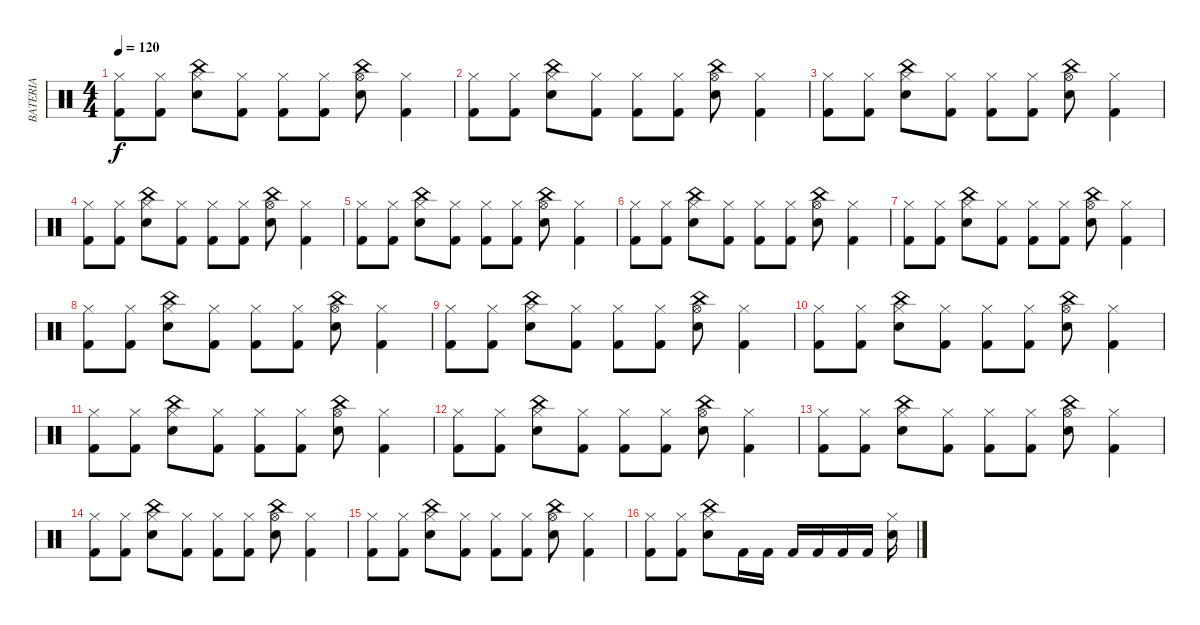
\track ("BATERIA" "BATERIA") {instrument percussion}
\staff {score}
\articulation defaults
\ts (4 4)
\tempo 120
\clef neutral
\ks c
("Hi-Hat (closed)" "Kick (hit) 2").8{dy f} ("Hi-Hat (closed)" "Kick (hit) 2").8 ("Snare (hit) 2" "Hi-Hat (closed)" "China (hit)").8 ("Kick (hit) 2" "Hi-Hat (closed)").8 ("Kick (hit) 2" "Hi-Hat (closed)").8 ("Kick (hit) 2" "Hi-Hat (closed)").8 ("Snare (hit) 2" "Hi-Hat (open)" "China (hit)").8 ("Kick (hit) 2" "Hi-Hat (closed)").4 |
("Hi-Hat (closed)" "Kick (hit) 2").8 ("Hi-Hat (closed)" "Kick (hit) 2").8 ("Snare (hit) 2" "Hi-Hat (closed)" "China (hit)").8 ("Kick (hit) 2" "Hi-Hat (closed)").8 ("Kick (hit) 2" "Hi-Hat (closed)").8 ("Kick (hit) 2" "Hi-Hat (closed)").8 ("Snare (hit) 2" "Hi-Hat (open)" "China (hit)").8 ("Kick (hit) 2" "Hi-Hat (closed)").4 |
("Hi-Hat (closed)" "Kick (hit) 2").8 ("Hi-Hat (closed)" "Kick (hit) 2").8 ("Snare (hit) 2" "Hi-Hat (closed)" "China (hit)").8 ("Kick (hit) 2" "Hi-Hat (closed)").8 ("Kick (hit) 2" "Hi-Hat (closed)").8 ("Kick (hit) 2" "Hi-Hat (closed)").8 ("Snare (hit) 2" "Hi-Hat (open)" "China (hit)").8 ("Kick (hit) 2" "Hi-Hat (closed)").4 |
("Hi-Hat (closed)" "Kick (hit) 2").8 ("Hi-Hat (closed)" "Kick (hit) 2").8 ("Snare (hit) 2" "Hi-Hat (closed)" "China (hit)").8 ("Kick (hit) 2" "Hi-Hat (closed)").8 ("Kick (hit) 2" "Hi-Hat (closed)").8 ("Kick (hit) 2" "Hi-Hat (closed)").8 ("Snare (hit) 2" "Hi-Hat (open)" "China (hit)").8 ("Kick (hit) 2" "Hi-Hat (closed)").4 |
("Hi-Hat (closed)" "Kick (hit) 2").8 ("Hi-Hat (closed)" "Kick (hit) 2").8 ("Snare (hit) 2" "Hi-Hat (closed)" "China (hit)").8 ("Kick (hit) 2" "Hi-Hat (closed)").8 ("Kick (hit) 2" "Hi-Hat (closed)").8 ("Kick (hit) 2" "Hi-Hat (closed)").8 ("Snare (hit) 2" "Hi-Hat (open)" "China (hit)").8 ("Kick (hit) 2" "Hi-Hat (closed)").4 |
("Hi-Hat (closed)" "Kick (hit) 2").8 ("Hi-Hat (closed)" "Kick (hit) 2").8 ("Snare (hit) 2" "Hi-Hat (closed)" "China (hit)").8 ("Kick (hit) 2" "Hi-Hat (closed)").8 ("Kick (hit) 2" "Hi-Hat (closed)").8 ("Kick (hit) 2" "Hi-Hat (closed)").8 ("Snare (hit) 2" "Hi-Hat (open)" "China (hit)").8 ("Kick (hit) 2" "Hi-Hat (closed)").4 |
("Hi-Hat (closed)" "Kick (hit) 2").8 ("Hi-Hat (closed)" "Kick (hit) 2").8 ("Snare (hit) 2" "Hi-Hat (closed)" "China (hit)").8 ("Kick (hit) 2" "Hi-Hat (closed)").8 ("Kick (hit) 2" "Hi-Hat (closed)").8 ("Kick (hit) 2" "Hi-Hat (closed)").8 ("Snare (hit) 2" "Hi-Hat (open)" "China (hit)").8 ("Kick (hit) 2" "Hi-Hat (closed)").4 |
("Hi-Hat (closed)" "Kick (hit) 2").8 ("Hi-Hat (closed)" "Kick (hit) 2").8 ("Snare (hit) 2" "Hi-Hat (closed)" "China (hit)").8 ("Kick (hit) 2" "Hi-Hat (closed)").8 ("Kick (hit) 2" "Hi-Hat (closed)").8 ("Kick (hit) 2" "Hi-Hat (closed)").8 ("Snare (hit) 2" "Hi-Hat (open)" "China (hit)").8 ("Kick (hit) 2" "Hi-Hat (closed)").4 |
("Hi-Hat (closed)" "Kick (hit) 2").8 ("Hi-Hat (closed)" "Kick (hit) 2").8 ("Snare (hit) 2" "Hi-Hat (closed)" "China (hit)").8 ("Kick (hit) 2" "Hi-Hat (closed)").8 ("Kick (hit) 2" "Hi-Hat (closed)").8 ("Kick (hit) 2" "Hi-Hat (closed)").8 ("Snare (hit) 2" "Hi-Hat (open)" "China (hit)").8 ("Kick (hit) 2" "Hi-Hat (closed)").4 |
("Hi-Hat (closed)" "Kick (hit) 2").8 ("Hi-Hat (closed)" "Kick (hit) 2").8 ("Snare (hit) 2" "Hi-Hat (closed)" "China (hit)").8 ("Kick (hit) 2" "Hi-Hat (closed)").8 ("Kick (hit) 2" "Hi-Hat (closed)").8 ("Kick (hit) 2" "Hi-Hat (closed)").8 ("Snare (hit) 2" "Hi-Hat (open)" "China (hit)").8 ("Kick (hit) 2" "Hi-Hat (closed)").4 |
("Hi-Hat (closed)" "Kick (hit) 2").8 ("Hi-Hat (closed)" "Kick (hit) 2").8 ("Snare (hit) 2" "Hi-Hat (closed)" "China (hit)").8 ("Kick (hit) 2" "Hi-Hat (closed)").8 ("Kick (hit) 2" "Hi-Hat (closed)").8 ("Kick (hit) 2" "Hi-Hat (closed)").8 ("Snare (hit) 2" "Hi-Hat (open)" "China (hit)").8 ("Kick (hit) 2" "Hi-Hat (closed)").4 |
("Hi-Hat (closed)" "Kick (hit) 2").8 ("Hi-Hat (closed)" "Kick (hit) 2").8 ("Snare (hit) 2" "Hi-Hat (closed)" "China (hit)").8 ("Kick (hit) 2" "Hi-Hat (closed)").8 ("Kick (hit) 2" "Hi-Hat (closed)").8 ("Kick (hit) 2" "Hi-Hat (closed)").8 ("Snare (hit) 2" "Hi-Hat (open)" "China (hit)").8 ("Kick (hit) 2" "Hi-Hat (closed)").4 |
("Hi-Hat (closed)" "Kick (hit) 2").8 ("Hi-Hat (closed)" "Kick (hit) 2").8 ("Snare (hit) 2" "Hi-Hat (closed)" "China (hit)").8 ("Kick (hit) 2" "Hi-Hat (closed)").8 ("Kick (hit) 2" "Hi-Hat (closed)").8 ("Kick (hit) 2" "Hi-Hat (closed)").8 ("Snare (hit) 2" "Hi-Hat (open)" "China (hit)").8 ("Kick (hit) 2" "Hi-Hat (closed)").4 |
("Hi-Hat (closed)" "Kick (hit) 2").8 ("Hi-Hat (closed)" "Kick (hit) 2").8 ("Snare (hit) 2" "Hi-Hat (closed)" "China (hit)").8 ("Kick (hit) 2" "Hi-Hat (closed)").8 ("Kick (hit) 2" "Hi-Hat (closed)").8 ("Kick (hit) 2" "Hi-Hat (closed)").8 ("Snare (hit) 2" "Hi-Hat (open)" "China (hit)").8 ("Kick (hit) 2" "Hi-Hat (closed)").4 |
("Hi-Hat (closed)" "Kick (hit) 2").8 ("Hi-Hat (closed)" "Kick (hit) 2").8 ("Snare (hit) 2" "Hi-Hat (closed)" "China (hit)").8 ("Kick (hit) 2" "Hi-Hat (closed)").8 ("Kick (hit) 2" "Hi-Hat (closed)").8 ("Kick (hit) 2" "Hi-Hat (closed)").8 ("Snare (hit) 2" "Hi-Hat (open)" "China (hit)").8 ("Kick (hit) 2" "Hi-Hat (closed)").4 |
("Hi-Hat (closed)" "Kick (hit) 2").8 ("Hi-Hat (closed)" "Kick (hit) 2").8 ("Snare (hit) 2" "Hi-Hat (closed)" "China (hit)").8 "Kick (hit) 2".16 "Kick (hit) 2".16 "Kick (hit) 2".16 "Kick (hit) 2".16 "Kick (hit) 2".16 "Kick (hit) 2".16 ("Snare (hit) 2" "Hi-Hat (closed)").16
